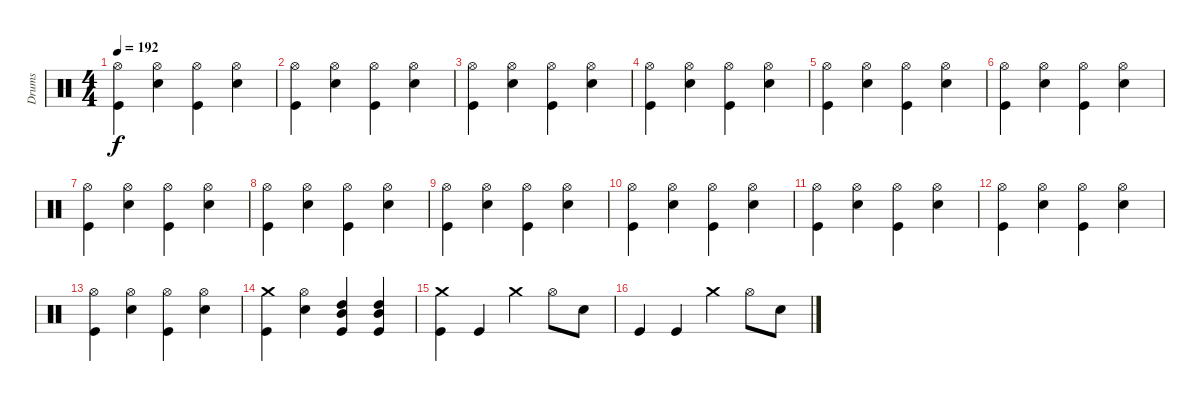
\track ("Drums" "Drums") {instrument percussion}
\staff {score}
\articulation defaults
\ts (4 4)
\tempo 192
\clef neutral
\ks c
("Kick (hit)" "Hi-Hat (open)").4{dy f} ("Snare (hit) 2" "Hi-Hat (open)").4 ("Kick (hit)" "Hi-Hat (open)").4 ("Snare (hit) 2" "Hi-Hat (open)").4 |
("Kick (hit)" "Hi-Hat (open)").4 ("Snare (hit) 2" "Hi-Hat (open)").4 ("Kick (hit)" "Hi-Hat (open)").4 ("Snare (hit) 2" "Hi-Hat (open)").4 |
("Kick (hit)" "Hi-Hat (open)").4 ("Snare (hit) 2" "Hi-Hat (open)").4 ("Kick (hit)" "Hi-Hat (open)").4 ("Snare (hit) 2" "Hi-Hat (open)").4 |
("Kick (hit)" "Hi-Hat (open)").4 ("Snare (hit) 2" "Hi-Hat (open)").4 ("Kick (hit)" "Hi-Hat (open)").4 ("Snare (hit) 2" "Hi-Hat (open)").4 |
("Kick (hit)" "Hi-Hat (open)").4 ("Snare (hit) 2" "Hi-Hat (open)").4 ("Kick (hit)" "Hi-Hat (open)").4 ("Snare (hit) 2" "Hi-Hat (open)").4 |
("Kick (hit)" "Hi-Hat (open)").4 ("Snare (hit) 2" "Hi-Hat (open)").4 ("Kick (hit)" "Hi-Hat (open)").4 ("Snare (hit) 2" "Hi-Hat (open)").4 |
("Kick (hit)" "Hi-Hat (open)").4 ("Snare (hit) 2" "Hi-Hat (open)").4 ("Kick (hit)" "Hi-Hat (open)").4 ("Snare (hit) 2" "Hi-Hat (open)").4 |
("Kick (hit)" "Hi-Hat (open)").4 ("Snare (hit) 2" "Hi-Hat (open)").4 ("Kick (hit)" "Hi-Hat (open)").4 ("Snare (hit) 2" "Hi-Hat (open)").4 |
("Kick (hit)" "Hi-Hat (open)").4 ("Snare (hit) 2" "Hi-Hat (open)").4 ("Kick (hit)" "Hi-Hat (open)").4 ("Snare (hit) 2" "Hi-Hat (open)").4 |
("Kick (hit)" "Hi-Hat (open)").4 ("Snare (hit) 2" "Hi-Hat (open)").4 ("Kick (hit)" "Hi-Hat (open)").4 ("Snare (hit) 2" "Hi-Hat (open)").4 |
("Kick (hit)" "Hi-Hat (open)").4 ("Snare (hit) 2" "Hi-Hat (open)").4 ("Kick (hit)" "Hi-Hat (open)").4 ("Snare (hit) 2" "Hi-Hat (open)").4 |
("Kick (hit)" "Hi-Hat (open)").4 ("Snare (hit) 2" "Hi-Hat (open)").4 ("Kick (hit)" "Hi-Hat (open)").4 ("Snare (hit) 2" "Hi-Hat (open)").4 |
("Kick (hit)" "Hi-Hat (open)").4 ("Snare (hit) 2" "Hi-Hat (open)").4 ("Kick (hit)" "Hi-Hat (open)").4 ("Snare (hit) 2" "Hi-Hat (open)").4 |
("Kick (hit)" "Crash medium (hit)").4 ("Snare (hit) 2" "Hi-Hat (open)").4 ("Kick (hit)" "High Tom (hit)" "Mid Tom (hit)").4 ("Kick (hit)" "High Tom (hit)" "Mid Tom (hit)").4 |
("Kick (hit)" "Crash medium (hit)").4 "Kick (hit)".4 "Crash medium (hit)".4 "Hi-Hat (open)".8 "Snare (hit) 2".8 |
"Kick (hit)".4 "Kick (hit)".4 "Crash medium (hit)".4 "Hi-Hat (open)".8 "Snare (hit) 2".8
